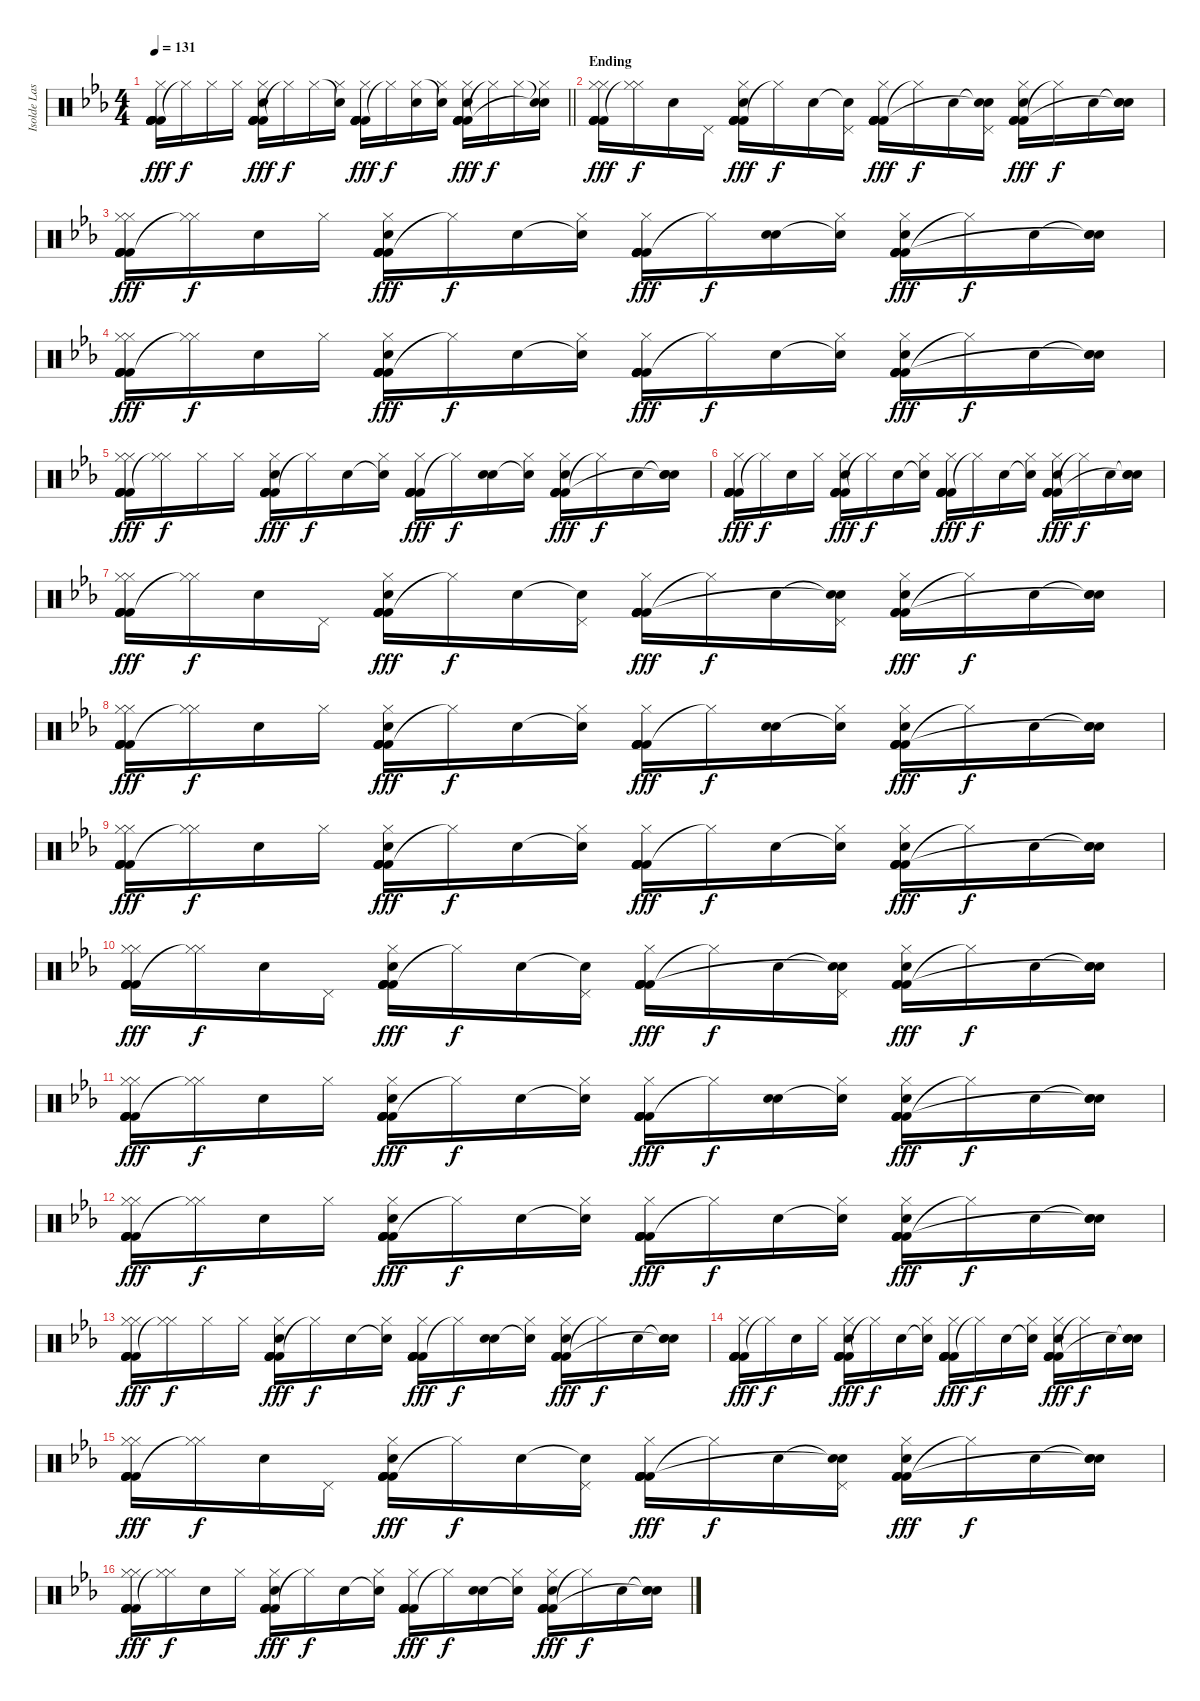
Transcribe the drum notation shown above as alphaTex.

\track ("Isolde Lasoen (Percussion)" "Isolde Las") {instrument percussion}
\staff {score}
\articulation defaults
\ts (4 4)
\tempo 131
\clef neutral
\barLineRight lightlight
\ks cminor
("Kick (hit) 2" "Kick (hit) 2" "Kick (hit) 2" "Kick (hit) 2" "Hi-Hat (closed)" "Kick (hit) 2").16{dy fff} "Hi-Hat (closed)"{t}.16{dy f} "Hi-Hat (closed)".16 "Hi-Hat (closed)".16 ("Kick (hit) 2" "Kick (hit) 2" "Kick (hit) 2" "Kick (hit) 2" "Hi-Hat (closed)" "Hand Clap (hit)").16{dy fff} "Hi-Hat (closed)"{t}.16{dy f} "Hi-Hat (closed)".16 ("Snare (hit)"{t} "Hi-Hat (closed)").16 ("Kick (hit) 2" "Kick (hit) 2" "Kick (hit) 2" "Kick (hit) 2" "Hi-Hat (closed)" "Kick (hit) 2").16{dy fff} "Hi-Hat (closed)"{t}.16{dy f} ("Hi-Hat (closed)" "Hand Clap (hit)").16 ("Snare (hit)"{t} "Hi-Hat (closed)").16 ("Kick (hit) 2" "Kick (hit) 2" "Kick (hit) 2" "Kick (hit) 2" "Hi-Hat (closed)" "Hand Clap (hit)").16{dy fff} "Hi-Hat (closed)"{t}.16{dy f} "Hi-Hat (closed)".16 ("Snare (hit)"{t} "Hi-Hat (closed)" "Snare (hit)"{t}).16 |
\section ("" "Ending")
("Hi-Hat (closed)" "Kick (hit) 2" "Kick (hit) 2" "Kick (hit) 2" "Hi-Hat (closed)" "Kick (hit) 2").16{dy fff} ("Hi-Hat (closed)" "Hi-Hat (closed)"{t}).16{dy f} "Hand Clap (hit)".16 "Pedal Hi-Hat (hit)".16 ("Kick (hit) 2" "Kick (hit) 2" "Kick (hit) 2" "Kick (hit) 2" "Hi-Hat (closed)" "Hand Clap (hit)").16{dy fff} "Hi-Hat (closed)"{t}.16{dy f} "Hand Clap (hit)".16 ("Snare (hit)"{t} "Pedal Hi-Hat (hit)").16 ("Kick (hit) 2" "Kick (hit) 2" "Kick (hit) 2" "Kick (hit) 2" "Hi-Hat (closed)" "Kick (hit) 2").16{dy fff} "Hi-Hat (closed)"{t}.16{dy f} "Hand Clap (hit)".16 ("Snare (hit)"{t} "Snare (hit)"{t} "Pedal Hi-Hat (hit)").16 ("Kick (hit) 2" "Kick (hit) 2" "Kick (hit) 2" "Hi-Hat (closed)" "Hand Clap (hit)").16{dy fff} "Hi-Hat (closed)"{t}.16{dy f} "Hand Clap (hit)".16 ("Snare (hit)"{t} "Hand Clap (hit)" "Snare (hit)"{t}).16 |
("Hi-Hat (closed)" "Kick (hit) 2" "Kick (hit) 2" "Kick (hit) 2" "Hi-Hat (closed)" "Kick (hit) 2").16{dy fff} ("Hi-Hat (closed)" "Hi-Hat (closed)"{t}).16{dy f} "Hand Clap (hit)".16 "Hi-Hat (closed)".16 ("Kick (hit) 2" "Kick (hit) 2" "Kick (hit) 2" "Kick (hit) 2" "Hi-Hat (closed)" "Hand Clap (hit)").16{dy fff} "Hi-Hat (closed)"{t}.16{dy f} "Hand Clap (hit)".16 ("Snare (hit)"{t} "Hi-Hat (closed)").16 ("Kick (hit) 2" "Kick (hit) 2" "Kick (hit) 2" "Kick (hit) 2" "Hi-Hat (closed)" "Kick (hit) 2").16{dy fff} "Hi-Hat (closed)"{t}.16{dy f} ("Hand Clap (hit)" "Hand Clap (hit)").16 ("Snare (hit)"{t} "Hi-Hat (closed)").16 ("Kick (hit) 2" "Kick (hit) 2" "Kick (hit) 2" "Kick (hit) 2" "Hi-Hat (closed)" "Hand Clap (hit)").16{dy fff} "Hi-Hat (closed)"{t}.16{dy f} "Hand Clap (hit)".16 ("Snare (hit)"{t} "Hand Clap (hit)" "Snare (hit)"{t}).16 |
("Hi-Hat (closed)" "Kick (hit) 2" "Kick (hit) 2" "Kick (hit) 2" "Hi-Hat (closed)" "Kick (hit) 2").16{dy fff} ("Hi-Hat (closed)" "Hi-Hat (closed)"{t}).16{dy f} "Hand Clap (hit)".16 "Hi-Hat (closed)".16 ("Kick (hit) 2" "Kick (hit) 2" "Kick (hit) 2" "Kick (hit) 2" "Hi-Hat (closed)" "Hand Clap (hit)").16{dy fff} "Hi-Hat (closed)"{t}.16{dy f} "Hand Clap (hit)".16 ("Snare (hit)"{t} "Hi-Hat (closed)").16 ("Kick (hit) 2" "Kick (hit) 2" "Kick (hit) 2" "Kick (hit) 2" "Hi-Hat (closed)" "Kick (hit) 2").16{dy fff} "Hi-Hat (closed)"{t}.16{dy f} "Hand Clap (hit)".16 ("Snare (hit)"{t} "Hi-Hat (closed)").16 ("Kick (hit) 2" "Kick (hit) 2" "Kick (hit) 2" "Kick (hit) 2" "Hi-Hat (closed)" "Hand Clap (hit)").16{dy fff} "Hi-Hat (closed)"{t}.16{dy f} "Hand Clap (hit)".16 ("Snare (hit)"{t} "Hand Clap (hit)" "Snare (hit)"{t}).16 |
("Hi-Hat (closed)" "Kick (hit) 2" "Kick (hit) 2" "Kick (hit) 2" "Hi-Hat (closed)" "Kick (hit) 2").16{dy fff} ("Hi-Hat (closed)" "Hi-Hat (closed)"{t}).16{dy f} "Hi-Hat (closed)".16 "Hi-Hat (closed)".16 ("Kick (hit) 2" "Kick (hit) 2" "Kick (hit) 2" "Kick (hit) 2" "Hi-Hat (closed)" "Hand Clap (hit)").16{dy fff} "Hi-Hat (closed)"{t}.16{dy f} "Hand Clap (hit)".16 ("Snare (hit)"{t} "Hi-Hat (closed)").16 ("Kick (hit) 2" "Kick (hit) 2" "Kick (hit) 2" "Kick (hit) 2" "Hi-Hat (closed)" "Kick (hit) 2").16{dy fff} "Hi-Hat (closed)"{t}.16{dy f} ("Hand Clap (hit)" "Hand Clap (hit)").16 ("Snare (hit)"{t} "Hi-Hat (closed)").16 ("Kick (hit) 2" "Kick (hit) 2" "Kick (hit) 2" "Kick (hit) 2" "Hi-Hat (closed)" "Hand Clap (hit)").16{dy fff} "Hi-Hat (closed)"{t}.16{dy f} "Hand Clap (hit)".16 ("Snare (hit)"{t} "Hand Clap (hit)" "Snare (hit)"{t}).16 |
("Kick (hit) 2" "Kick (hit) 2" "Kick (hit) 2" "Kick (hit) 2" "Hi-Hat (closed)" "Kick (hit) 2").16{dy fff} "Hi-Hat (closed)"{t}.16{dy f} "Hand Clap (hit)".16 "Hi-Hat (closed)".16 ("Kick (hit) 2" "Kick (hit) 2" "Kick (hit) 2" "Kick (hit) 2" "Hi-Hat (closed)" "Hand Clap (hit)").16{dy fff} "Hi-Hat (closed)"{t}.16{dy f} "Hand Clap (hit)".16 ("Snare (hit)"{t} "Hi-Hat (closed)").16 ("Kick (hit) 2" "Kick (hit) 2" "Kick (hit) 2" "Kick (hit) 2" "Hi-Hat (closed)" "Kick (hit) 2").16{dy fff} "Hi-Hat (closed)"{t}.16{dy f} "Hand Clap (hit)".16 ("Snare (hit)"{t} "Hi-Hat (closed)").16 ("Kick (hit) 2" "Kick (hit) 2" "Kick (hit) 2" "Kick (hit) 2" "Hi-Hat (closed)" "Hand Clap (hit)").16{dy fff} "Hi-Hat (closed)"{t}.16{dy f} "Hand Clap (hit)".16 ("Snare (hit)"{t} "Hand Clap (hit)" "Snare (hit)"{t}).16 |
("Hi-Hat (closed)" "Kick (hit) 2" "Kick (hit) 2" "Kick (hit) 2" "Hi-Hat (closed)" "Kick (hit) 2").16{dy fff} ("Hi-Hat (closed)" "Hi-Hat (closed)"{t}).16{dy f} "Hand Clap (hit)".16 "Pedal Hi-Hat (hit)".16 ("Kick (hit) 2" "Kick (hit) 2" "Kick (hit) 2" "Kick (hit) 2" "Hi-Hat (closed)" "Hand Clap (hit)").16{dy fff} "Hi-Hat (closed)"{t}.16{dy f} "Hand Clap (hit)".16 ("Snare (hit)"{t} "Pedal Hi-Hat (hit)").16 ("Kick (hit) 2" "Kick (hit) 2" "Kick (hit) 2" "Kick (hit) 2" "Hi-Hat (closed)" "Kick (hit) 2").16{dy fff} "Hi-Hat (closed)"{t}.16{dy f} "Hand Clap (hit)".16 ("Snare (hit)"{t} "Snare (hit)"{t} "Pedal Hi-Hat (hit)").16 ("Kick (hit) 2" "Kick (hit) 2" "Kick (hit) 2" "Hi-Hat (closed)" "Hand Clap (hit)").16{dy fff} "Hi-Hat (closed)"{t}.16{dy f} "Hand Clap (hit)".16 ("Snare (hit)"{t} "Hand Clap (hit)" "Snare (hit)"{t}).16 |
("Hi-Hat (closed)" "Kick (hit) 2" "Kick (hit) 2" "Kick (hit) 2" "Hi-Hat (closed)" "Kick (hit) 2").16{dy fff} ("Hi-Hat (closed)" "Hi-Hat (closed)"{t}).16{dy f} "Hand Clap (hit)".16 "Hi-Hat (closed)".16 ("Kick (hit) 2" "Kick (hit) 2" "Kick (hit) 2" "Kick (hit) 2" "Hi-Hat (closed)" "Hand Clap (hit)").16{dy fff} "Hi-Hat (closed)"{t}.16{dy f} "Hand Clap (hit)".16 ("Snare (hit)"{t} "Hi-Hat (closed)").16 ("Kick (hit) 2" "Kick (hit) 2" "Kick (hit) 2" "Kick (hit) 2" "Hi-Hat (closed)" "Kick (hit) 2").16{dy fff} "Hi-Hat (closed)"{t}.16{dy f} ("Hand Clap (hit)" "Hand Clap (hit)").16 ("Snare (hit)"{t} "Hi-Hat (closed)").16 ("Kick (hit) 2" "Kick (hit) 2" "Kick (hit) 2" "Kick (hit) 2" "Hi-Hat (closed)" "Hand Clap (hit)").16{dy fff} "Hi-Hat (closed)"{t}.16{dy f} "Hand Clap (hit)".16 ("Snare (hit)"{t} "Hand Clap (hit)" "Snare (hit)"{t}).16 |
("Hi-Hat (closed)" "Kick (hit) 2" "Kick (hit) 2" "Kick (hit) 2" "Hi-Hat (closed)" "Kick (hit) 2").16{dy fff} ("Hi-Hat (closed)" "Hi-Hat (closed)"{t}).16{dy f} "Hand Clap (hit)".16 "Hi-Hat (closed)".16 ("Kick (hit) 2" "Kick (hit) 2" "Kick (hit) 2" "Kick (hit) 2" "Hi-Hat (closed)" "Hand Clap (hit)").16{dy fff} "Hi-Hat (closed)"{t}.16{dy f} "Hand Clap (hit)".16 ("Snare (hit)"{t} "Hi-Hat (closed)").16 ("Kick (hit) 2" "Kick (hit) 2" "Kick (hit) 2" "Kick (hit) 2" "Hi-Hat (closed)" "Kick (hit) 2").16{dy fff} "Hi-Hat (closed)"{t}.16{dy f} "Hand Clap (hit)".16 ("Snare (hit)"{t} "Hi-Hat (closed)").16 ("Kick (hit) 2" "Kick (hit) 2" "Kick (hit) 2" "Kick (hit) 2" "Hi-Hat (closed)" "Hand Clap (hit)").16{dy fff} "Hi-Hat (closed)"{t}.16{dy f} "Hand Clap (hit)".16 ("Snare (hit)"{t} "Hand Clap (hit)" "Snare (hit)"{t}).16 |
("Hi-Hat (closed)" "Kick (hit) 2" "Kick (hit) 2" "Kick (hit) 2" "Hi-Hat (closed)" "Kick (hit) 2").16{dy fff} ("Hi-Hat (closed)" "Hi-Hat (closed)"{t}).16{dy f} "Hand Clap (hit)".16 "Pedal Hi-Hat (hit)".16 ("Kick (hit) 2" "Kick (hit) 2" "Kick (hit) 2" "Kick (hit) 2" "Hi-Hat (closed)" "Hand Clap (hit)").16{dy fff} "Hi-Hat (closed)"{t}.16{dy f} "Hand Clap (hit)".16 ("Snare (hit)"{t} "Pedal Hi-Hat (hit)").16 ("Kick (hit) 2" "Kick (hit) 2" "Kick (hit) 2" "Kick (hit) 2" "Hi-Hat (closed)" "Kick (hit) 2").16{dy fff} "Hi-Hat (closed)"{t}.16{dy f} "Hand Clap (hit)".16 ("Snare (hit)"{t} "Snare (hit)"{t} "Pedal Hi-Hat (hit)").16 ("Kick (hit) 2" "Kick (hit) 2" "Kick (hit) 2" "Hi-Hat (closed)" "Hand Clap (hit)").16{dy fff} "Hi-Hat (closed)"{t}.16{dy f} "Hand Clap (hit)".16 ("Snare (hit)"{t} "Hand Clap (hit)" "Snare (hit)"{t}).16 |
("Hi-Hat (closed)" "Kick (hit) 2" "Kick (hit) 2" "Kick (hit) 2" "Hi-Hat (closed)" "Kick (hit) 2").16{dy fff} ("Hi-Hat (closed)" "Hi-Hat (closed)"{t}).16{dy f} "Hand Clap (hit)".16 "Hi-Hat (closed)".16 ("Kick (hit) 2" "Kick (hit) 2" "Kick (hit) 2" "Kick (hit) 2" "Hi-Hat (closed)" "Hand Clap (hit)").16{dy fff} "Hi-Hat (closed)"{t}.16{dy f} "Hand Clap (hit)".16 ("Snare (hit)"{t} "Hi-Hat (closed)").16 ("Kick (hit) 2" "Kick (hit) 2" "Kick (hit) 2" "Kick (hit) 2" "Hi-Hat (closed)" "Kick (hit) 2").16{dy fff} "Hi-Hat (closed)"{t}.16{dy f} ("Hand Clap (hit)" "Hand Clap (hit)").16 ("Snare (hit)"{t} "Hi-Hat (closed)").16 ("Kick (hit) 2" "Kick (hit) 2" "Kick (hit) 2" "Kick (hit) 2" "Hi-Hat (closed)" "Hand Clap (hit)").16{dy fff} "Hi-Hat (closed)"{t}.16{dy f} "Hand Clap (hit)".16 ("Snare (hit)"{t} "Hand Clap (hit)" "Snare (hit)"{t}).16 |
("Hi-Hat (closed)" "Kick (hit) 2" "Kick (hit) 2" "Kick (hit) 2" "Hi-Hat (closed)" "Kick (hit) 2").16{dy fff} ("Hi-Hat (closed)" "Hi-Hat (closed)"{t}).16{dy f} "Hand Clap (hit)".16 "Hi-Hat (closed)".16 ("Kick (hit) 2" "Kick (hit) 2" "Kick (hit) 2" "Kick (hit) 2" "Hi-Hat (closed)" "Hand Clap (hit)").16{dy fff} "Hi-Hat (closed)"{t}.16{dy f} "Hand Clap (hit)".16 ("Snare (hit)"{t} "Hi-Hat (closed)").16 ("Kick (hit) 2" "Kick (hit) 2" "Kick (hit) 2" "Kick (hit) 2" "Hi-Hat (closed)" "Kick (hit) 2").16{dy fff} "Hi-Hat (closed)"{t}.16{dy f} "Hand Clap (hit)".16 ("Snare (hit)"{t} "Hi-Hat (closed)").16 ("Kick (hit) 2" "Kick (hit) 2" "Kick (hit) 2" "Kick (hit) 2" "Hi-Hat (closed)" "Hand Clap (hit)").16{dy fff} "Hi-Hat (closed)"{t}.16{dy f} "Hand Clap (hit)".16 ("Snare (hit)"{t} "Hand Clap (hit)" "Snare (hit)"{t}).16 |
("Hi-Hat (closed)" "Kick (hit) 2" "Kick (hit) 2" "Kick (hit) 2" "Hi-Hat (closed)" "Kick (hit) 2").16{dy fff} ("Hi-Hat (closed)" "Hi-Hat (closed)"{t}).16{dy f} "Hi-Hat (closed)".16 "Hi-Hat (closed)".16 ("Kick (hit) 2" "Kick (hit) 2" "Kick (hit) 2" "Kick (hit) 2" "Hi-Hat (closed)" "Hand Clap (hit)").16{dy fff} "Hi-Hat (closed)"{t}.16{dy f} "Hand Clap (hit)".16 ("Snare (hit)"{t} "Hi-Hat (closed)").16 ("Kick (hit) 2" "Kick (hit) 2" "Kick (hit) 2" "Kick (hit) 2" "Hi-Hat (closed)" "Kick (hit) 2").16{dy fff} "Hi-Hat (closed)"{t}.16{dy f} ("Hand Clap (hit)" "Hand Clap (hit)").16 ("Snare (hit)"{t} "Hi-Hat (closed)").16 ("Kick (hit) 2" "Kick (hit) 2" "Kick (hit) 2" "Kick (hit) 2" "Hi-Hat (closed)" "Hand Clap (hit)").16{dy fff} "Hi-Hat (closed)"{t}.16{dy f} "Hand Clap (hit)".16 ("Snare (hit)"{t} "Hand Clap (hit)" "Snare (hit)"{t}).16 |
("Kick (hit) 2" "Kick (hit) 2" "Kick (hit) 2" "Kick (hit) 2" "Hi-Hat (closed)" "Kick (hit) 2").16{dy fff} "Hi-Hat (closed)"{t}.16{dy f} "Hand Clap (hit)".16 "Hi-Hat (closed)".16 ("Kick (hit) 2" "Kick (hit) 2" "Kick (hit) 2" "Kick (hit) 2" "Hi-Hat (closed)" "Hand Clap (hit)").16{dy fff} "Hi-Hat (closed)"{t}.16{dy f} "Hand Clap (hit)".16 ("Snare (hit)"{t} "Hi-Hat (closed)").16 ("Kick (hit) 2" "Kick (hit) 2" "Kick (hit) 2" "Kick (hit) 2" "Hi-Hat (closed)" "Kick (hit) 2").16{dy fff} "Hi-Hat (closed)"{t}.16{dy f} "Hand Clap (hit)".16 ("Snare (hit)"{t} "Hi-Hat (closed)").16 ("Kick (hit) 2" "Kick (hit) 2" "Kick (hit) 2" "Kick (hit) 2" "Hi-Hat (closed)" "Hand Clap (hit)").16{dy fff} "Hi-Hat (closed)"{t}.16{dy f} "Hand Clap (hit)".16 ("Snare (hit)"{t} "Hand Clap (hit)" "Snare (hit)"{t}).16 |
("Hi-Hat (closed)" "Kick (hit) 2" "Kick (hit) 2" "Kick (hit) 2" "Hi-Hat (closed)" "Kick (hit) 2").16{dy fff} ("Hi-Hat (closed)" "Hi-Hat (closed)"{t}).16{dy f} "Hand Clap (hit)".16 "Pedal Hi-Hat (hit)".16 ("Kick (hit) 2" "Kick (hit) 2" "Kick (hit) 2" "Kick (hit) 2" "Hi-Hat (closed)" "Hand Clap (hit)").16{dy fff} "Hi-Hat (closed)"{t}.16{dy f} "Hand Clap (hit)".16 ("Snare (hit)"{t} "Pedal Hi-Hat (hit)").16 ("Kick (hit) 2" "Kick (hit) 2" "Kick (hit) 2" "Kick (hit) 2" "Hi-Hat (closed)" "Kick (hit) 2").16{dy fff} "Hi-Hat (closed)"{t}.16{dy f} "Hand Clap (hit)".16 ("Snare (hit)"{t} "Snare (hit)"{t} "Pedal Hi-Hat (hit)").16 ("Kick (hit) 2" "Kick (hit) 2" "Kick (hit) 2" "Hi-Hat (closed)" "Hand Clap (hit)").16{dy fff} "Hi-Hat (closed)"{t}.16{dy f} "Hand Clap (hit)".16 ("Snare (hit)"{t} "Hand Clap (hit)" "Snare (hit)"{t}).16 |
("Hi-Hat (closed)" "Kick (hit) 2" "Kick (hit) 2" "Kick (hit) 2" "Hi-Hat (closed)" "Kick (hit) 2").16{dy fff} ("Hi-Hat (closed)" "Hi-Hat (closed)"{t}).16{dy f} "Hand Clap (hit)".16 "Hi-Hat (closed)".16 ("Kick (hit) 2" "Kick (hit) 2" "Kick (hit) 2" "Kick (hit) 2" "Hi-Hat (closed)" "Hand Clap (hit)").16{dy fff} "Hi-Hat (closed)"{t}.16{dy f} "Hand Clap (hit)".16 ("Snare (hit)"{t} "Hi-Hat (closed)").16 ("Kick (hit) 2" "Kick (hit) 2" "Kick (hit) 2" "Kick (hit) 2" "Hi-Hat (closed)" "Kick (hit) 2").16{dy fff} "Hi-Hat (closed)"{t}.16{dy f} ("Hand Clap (hit)" "Hand Clap (hit)").16 ("Snare (hit)"{t} "Hi-Hat (closed)").16 ("Kick (hit) 2" "Kick (hit) 2" "Kick (hit) 2" "Kick (hit) 2" "Hi-Hat (closed)" "Hand Clap (hit)").16{dy fff} "Hi-Hat (closed)"{t}.16{dy f} "Hand Clap (hit)".16 ("Snare (hit)"{t} "Hand Clap (hit)" "Snare (hit)"{t}).16
